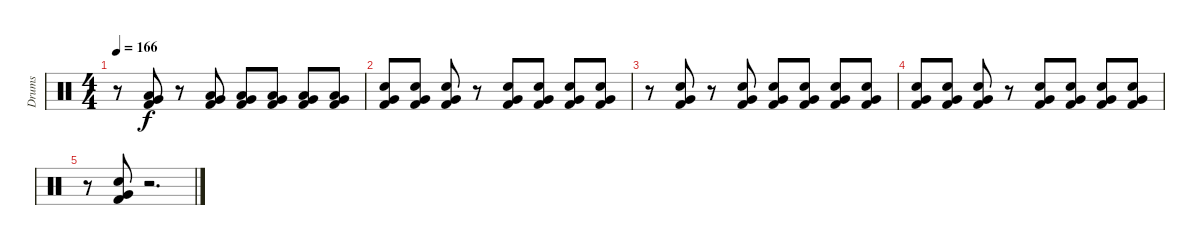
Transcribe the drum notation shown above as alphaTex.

\track ("Drums" "Drums") {instrument percussion}
\staff {score}
\articulation defaults
\ts (4 4)
\tempo 166
\clef neutral
\ks c
r.8{dy f} ("Very Low Tom (hit)" "Low Floor Tom (hit)" "Kick (hit) 2").8 r.8 ("Very Low Tom (hit)" "Low Floor Tom (hit)" "Kick (hit) 2").8 ("Very Low Tom (hit)" "Low Floor Tom (hit)" "Kick (hit) 2").8 ("Very Low Tom (hit)" "Low Floor Tom (hit)" "Kick (hit) 2").8 ("Very Low Tom (hit)" "Low Floor Tom (hit)" "Kick (hit) 2").8 ("Very Low Tom (hit)" "Low Floor Tom (hit)" "Kick (hit) 2").8 |
("Very Low Tom (hit)" "Electric Snare (hit)" "Kick (hit) 2").8 ("Very Low Tom (hit)" "Electric Snare (hit)" "Kick (hit) 2").8 ("Very Low Tom (hit)" "Electric Snare (hit)" "Kick (hit) 2").8 r.8 ("Very Low Tom (hit)" "Electric Snare (hit)" "Kick (hit) 2").8 ("Very Low Tom (hit)" "Electric Snare (hit)" "Kick (hit) 2").8 ("Very Low Tom (hit)" "Electric Snare (hit)" "Kick (hit) 2").8 ("Very Low Tom (hit)" "Electric Snare (hit)" "Kick (hit) 2").8 |
r.8 ("Very Low Tom (hit)" "Electric Snare (hit)" "Kick (hit) 2").8 r.8 ("Very Low Tom (hit)" "Electric Snare (hit)" "Kick (hit) 2").8 ("Very Low Tom (hit)" "Electric Snare (hit)" "Kick (hit) 2").8 ("Very Low Tom (hit)" "Electric Snare (hit)" "Kick (hit) 2").8 ("Very Low Tom (hit)" "Electric Snare (hit)" "Kick (hit) 2").8 ("Very Low Tom (hit)" "Electric Snare (hit)" "Kick (hit) 2").8 |
("Very Low Tom (hit)" "Electric Snare (hit)" "Kick (hit) 2").8 ("Very Low Tom (hit)" "Electric Snare (hit)" "Kick (hit) 2").8 ("Very Low Tom (hit)" "Electric Snare (hit)" "Kick (hit) 2").8 r.8 ("Very Low Tom (hit)" "Electric Snare (hit)" "Kick (hit) 2").8 ("Very Low Tom (hit)" "Electric Snare (hit)" "Kick (hit) 2").8 ("Very Low Tom (hit)" "Electric Snare (hit)" "Kick (hit) 2").8 ("Very Low Tom (hit)" "Electric Snare (hit)" "Kick (hit) 2").8 |
r.8 ("Very Low Tom (hit)" "Electric Snare (hit)" "Kick (hit) 2").8 r.2{d}
